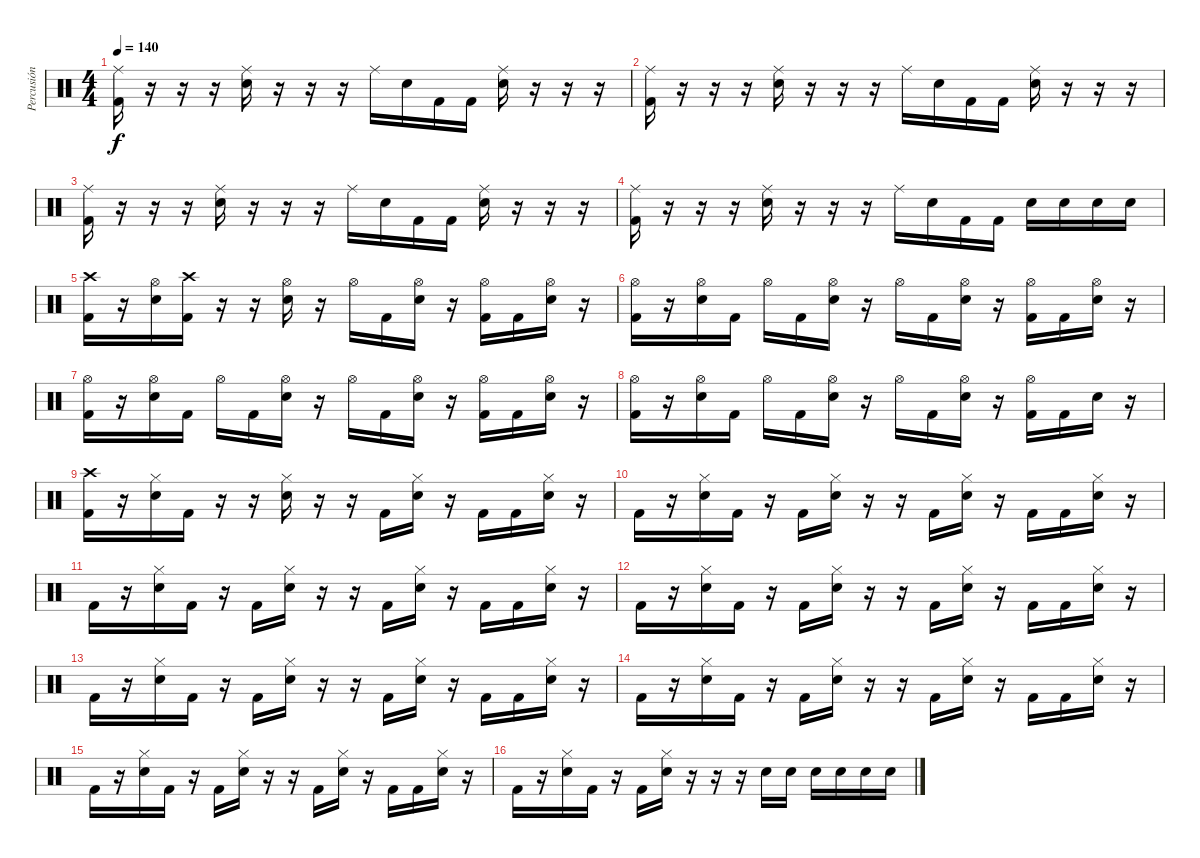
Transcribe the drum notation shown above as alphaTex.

\track ("Percusión" "Percusión") {instrument percussion}
\staff {score}
\articulation defaults
\ts (4 4)
\tempo 140
\clef neutral
\ks c
("Ride (middle)" "Kick (hit) 2").16{dy f} r.16 r.16 r.16 ("Ride (middle)" "Snare (hit) 2").16 r.16 r.16 r.16 "Ride (middle)".16 "Snare (hit) 2".16 "Kick (hit) 2".16 "Kick (hit) 2".16 ("Ride (middle)" "Snare (hit) 2").16 r.16 r.16 r.16 |
("Ride (middle)" "Kick (hit) 2").16 r.16 r.16 r.16 ("Ride (middle)" "Snare (hit) 2").16 r.16 r.16 r.16 "Ride (middle)".16 "Snare (hit) 2".16 "Kick (hit) 2".16 "Kick (hit) 2".16 ("Ride (middle)" "Snare (hit) 2").16 r.16 r.16 r.16 |
("Ride (middle)" "Kick (hit) 2").16 r.16 r.16 r.16 ("Ride (middle)" "Snare (hit) 2").16 r.16 r.16 r.16 "Ride (middle)".16 "Snare (hit) 2".16 "Kick (hit) 2".16 "Kick (hit) 2".16 ("Ride (middle)" "Snare (hit) 2").16 r.16 r.16 r.16 |
("Ride (middle)" "Kick (hit) 2").16 r.16 r.16 r.16 ("Ride (middle)" "Snare (hit) 2").16 r.16 r.16 r.16 "Ride (middle)".16 "Snare (hit) 2".16 "Kick (hit) 2".16 "Kick (hit) 2".16 "Snare (hit) 2".16 "Snare (hit) 2".16 "Snare (hit) 2".16 "Snare (hit) 2".16 |
("Crash high (hit)" "Kick (hit) 2").16 r.16 ("Hi-Hat (open)" "Snare (hit) 2").16 ("Crash high (hit)" "Kick (hit) 2").16 r.16 r.16 ("Hi-Hat (open)" "Snare (hit) 2").16 r.16 "Hi-Hat (open)".16 "Kick (hit) 2".16 ("Hi-Hat (open)" "Snare (hit) 2").16 r.16 ("Hi-Hat (open)" "Kick (hit) 2").16 "Kick (hit) 2".16 ("Hi-Hat (open)" "Snare (hit) 2").16 r.16 |
("Hi-Hat (open)" "Kick (hit) 2").16 r.16 ("Hi-Hat (open)" "Snare (hit) 2").16 "Kick (hit) 2".16 "Hi-Hat (open)".16 "Kick (hit) 2".16 ("Hi-Hat (open)" "Snare (hit) 2").16 r.16 "Hi-Hat (open)".16 "Kick (hit) 2".16 ("Hi-Hat (open)" "Snare (hit) 2").16 r.16 ("Hi-Hat (open)" "Kick (hit) 2").16 "Kick (hit) 2".16 ("Hi-Hat (open)" "Snare (hit) 2").16 r.16 |
("Hi-Hat (open)" "Kick (hit) 2").16 r.16 ("Hi-Hat (open)" "Snare (hit) 2").16 "Kick (hit) 2".16 "Hi-Hat (open)".16 "Kick (hit) 2".16 ("Hi-Hat (open)" "Snare (hit) 2").16 r.16 "Hi-Hat (open)".16 "Kick (hit) 2".16 ("Hi-Hat (open)" "Snare (hit) 2").16 r.16 ("Hi-Hat (open)" "Kick (hit) 2").16 "Kick (hit) 2".16 ("Hi-Hat (open)" "Snare (hit) 2").16 r.16 |
("Hi-Hat (open)" "Kick (hit) 2").16 r.16 ("Hi-Hat (open)" "Snare (hit) 2").16 "Kick (hit) 2".16 "Hi-Hat (open)".16 "Kick (hit) 2".16 ("Hi-Hat (open)" "Snare (hit) 2").16 r.16 "Hi-Hat (open)".16 "Kick (hit) 2".16 ("Hi-Hat (open)" "Snare (hit) 2").16 r.16 ("Hi-Hat (open)" "Kick (hit) 2").16 "Kick (hit) 2".16 "Snare (hit) 2".16 r.16 |
("Crash high (hit)" "Kick (hit) 2").16 r.16 ("Hi-Hat (closed)" "Snare (hit) 2").16 "Kick (hit) 2".16 r.16 r.16 ("Hi-Hat (closed)" "Snare (hit) 2").16 r.16 r.16 "Kick (hit) 2".16 ("Hi-Hat (closed)" "Snare (hit) 2").16 r.16 "Kick (hit) 2".16 "Kick (hit) 2".16 ("Hi-Hat (closed)" "Snare (hit) 2").16 r.16 |
"Kick (hit) 2".16 r.16 ("Hi-Hat (closed)" "Snare (hit) 2").16 "Kick (hit) 2".16 r.16 "Kick (hit) 2".16 ("Hi-Hat (closed)" "Snare (hit) 2").16 r.16 r.16 "Kick (hit) 2".16 ("Hi-Hat (closed)" "Snare (hit) 2").16 r.16 "Kick (hit) 2".16 "Kick (hit) 2".16 ("Hi-Hat (closed)" "Snare (hit) 2").16 r.16 |
"Kick (hit) 2".16 r.16 ("Hi-Hat (closed)" "Snare (hit) 2").16 "Kick (hit) 2".16 r.16 "Kick (hit) 2".16 ("Hi-Hat (closed)" "Snare (hit) 2").16 r.16 r.16 "Kick (hit) 2".16 ("Hi-Hat (closed)" "Snare (hit) 2").16 r.16 "Kick (hit) 2".16 "Kick (hit) 2".16 ("Hi-Hat (closed)" "Snare (hit) 2").16 r.16 |
"Kick (hit) 2".16 r.16 ("Hi-Hat (closed)" "Snare (hit) 2").16 "Kick (hit) 2".16 r.16 "Kick (hit) 2".16 ("Hi-Hat (closed)" "Snare (hit) 2").16 r.16 r.16 "Kick (hit) 2".16 ("Hi-Hat (closed)" "Snare (hit) 2").16 r.16 "Kick (hit) 2".16 "Kick (hit) 2".16 ("Hi-Hat (closed)" "Snare (hit) 2").16 r.16 |
"Kick (hit) 2".16 r.16 ("Hi-Hat (closed)" "Snare (hit) 2").16 "Kick (hit) 2".16 r.16 "Kick (hit) 2".16 ("Hi-Hat (closed)" "Snare (hit) 2").16 r.16 r.16 "Kick (hit) 2".16 ("Hi-Hat (closed)" "Snare (hit) 2").16 r.16 "Kick (hit) 2".16 "Kick (hit) 2".16 ("Hi-Hat (closed)" "Snare (hit) 2").16 r.16 |
"Kick (hit) 2".16 r.16 ("Hi-Hat (closed)" "Snare (hit) 2").16 "Kick (hit) 2".16 r.16 "Kick (hit) 2".16 ("Hi-Hat (closed)" "Snare (hit) 2").16 r.16 r.16 "Kick (hit) 2".16 ("Hi-Hat (closed)" "Snare (hit) 2").16 r.16 "Kick (hit) 2".16 "Kick (hit) 2".16 ("Hi-Hat (closed)" "Snare (hit) 2").16 r.16 |
"Kick (hit) 2".16 r.16 ("Hi-Hat (closed)" "Snare (hit) 2").16 "Kick (hit) 2".16 r.16 "Kick (hit) 2".16 ("Hi-Hat (closed)" "Snare (hit) 2").16 r.16 r.16 "Kick (hit) 2".16 ("Hi-Hat (closed)" "Snare (hit) 2").16 r.16 "Kick (hit) 2".16 "Kick (hit) 2".16 ("Hi-Hat (closed)" "Snare (hit) 2").16 r.16 |
"Kick (hit) 2".16 r.16 ("Hi-Hat (closed)" "Snare (hit) 2").16 "Kick (hit) 2".16 r.16 "Kick (hit) 2".16 ("Hi-Hat (closed)" "Snare (hit) 2").16 r.16 r.16 r.16 "Snare (hit) 2".16 "Snare (hit) 2".16 "Snare (hit) 2".16 "Snare (hit) 2".16 "Snare (hit) 2".16 "Snare (hit) 2".16
